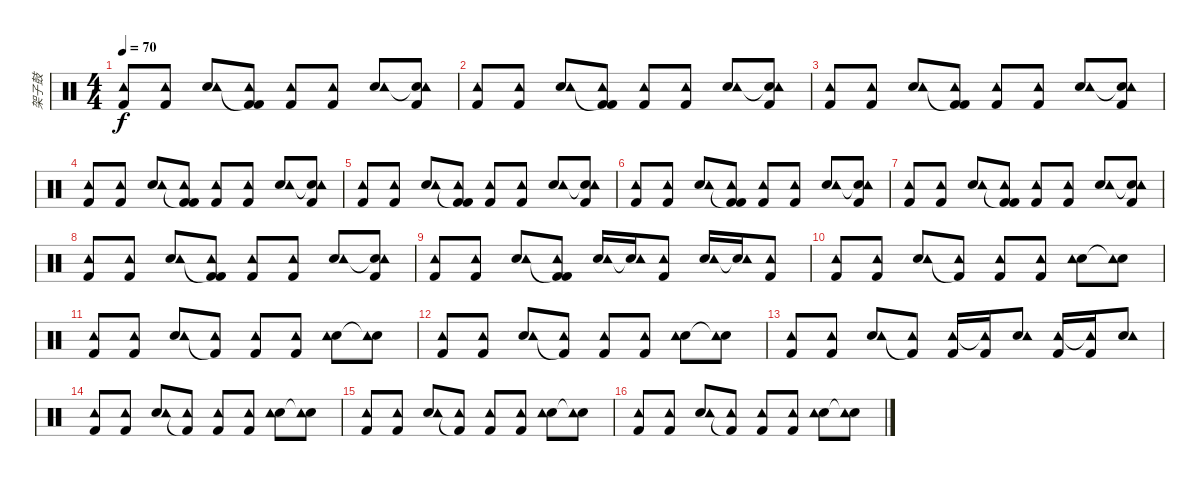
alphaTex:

\track ("架子鼓" "架子鼓") {instrument percussion}
\staff {score}
\articulation defaults
\ts (4 4)
\tempo 70
\clef neutral
\ks c
("Kick (hit) 2" "Tambourine (hit)").8{dy f} ("Kick (hit) 2" "Tambourine (hit)").8 ("Snare (hit) 2" "Tambourine (hit)").8 ("Kick (hit) 2"{t} "Tambourine (hit)" "Kick (hit) 2").8 ("Kick (hit) 2" "Tambourine (hit)").8 ("Kick (hit) 2" "Tambourine (hit)").8 ("Snare (hit) 2" "Tambourine (hit)").8 ("Snare (hit) 2"{t} "Tambourine (hit)" "Kick (hit) 2").8 |
("Kick (hit) 2" "Tambourine (hit)").8 ("Kick (hit) 2" "Tambourine (hit)").8 ("Snare (hit) 2" "Tambourine (hit)").8 ("Kick (hit) 2"{t} "Tambourine (hit)" "Kick (hit) 2").8 ("Kick (hit) 2" "Tambourine (hit)").8 ("Kick (hit) 2" "Tambourine (hit)").8 ("Snare (hit) 2" "Tambourine (hit)").8 ("Snare (hit) 2"{t} "Tambourine (hit)" "Kick (hit) 2").8 |
("Kick (hit) 2" "Tambourine (hit)").8 ("Kick (hit) 2" "Tambourine (hit)").8 ("Snare (hit) 2" "Tambourine (hit)").8 ("Kick (hit) 2"{t} "Tambourine (hit)" "Kick (hit) 2").8 ("Kick (hit) 2" "Tambourine (hit)").8 ("Kick (hit) 2" "Tambourine (hit)").8 ("Snare (hit) 2" "Tambourine (hit)").8 ("Snare (hit) 2"{t} "Tambourine (hit)" "Kick (hit) 2").8 |
("Kick (hit) 2" "Tambourine (hit)").8 ("Kick (hit) 2" "Tambourine (hit)").8 ("Snare (hit) 2" "Tambourine (hit)").8 ("Kick (hit) 2"{t} "Tambourine (hit)" "Kick (hit) 2").8 ("Kick (hit) 2" "Tambourine (hit)").8 ("Kick (hit) 2" "Tambourine (hit)").8 ("Snare (hit) 2" "Tambourine (hit)").8 ("Snare (hit) 2"{t} "Tambourine (hit)" "Kick (hit) 2").8 |
("Kick (hit) 2" "Tambourine (hit)").8 ("Kick (hit) 2" "Tambourine (hit)").8 ("Snare (hit) 2" "Tambourine (hit)").8 ("Kick (hit) 2"{t} "Tambourine (hit)" "Kick (hit) 2").8 ("Kick (hit) 2" "Tambourine (hit)").8 ("Kick (hit) 2" "Tambourine (hit)").8 ("Snare (hit) 2" "Tambourine (hit)").8 ("Snare (hit) 2"{t} "Tambourine (hit)" "Kick (hit) 2").8 |
("Kick (hit) 2" "Tambourine (hit)").8 ("Kick (hit) 2" "Tambourine (hit)").8 ("Snare (hit) 2" "Tambourine (hit)").8 ("Kick (hit) 2"{t} "Tambourine (hit)" "Kick (hit) 2").8 ("Kick (hit) 2" "Tambourine (hit)").8 ("Kick (hit) 2" "Tambourine (hit)").8 ("Snare (hit) 2" "Tambourine (hit)").8 ("Snare (hit) 2"{t} "Tambourine (hit)" "Kick (hit) 2").8 |
("Kick (hit) 2" "Tambourine (hit)").8 ("Kick (hit) 2" "Tambourine (hit)").8 ("Snare (hit) 2" "Tambourine (hit)").8 ("Kick (hit) 2"{t} "Tambourine (hit)" "Kick (hit) 2").8 ("Kick (hit) 2" "Tambourine (hit)").8 ("Kick (hit) 2" "Tambourine (hit)").8 ("Snare (hit) 2" "Tambourine (hit)").8 ("Snare (hit) 2"{t} "Tambourine (hit)" "Kick (hit) 2").8 |
("Kick (hit) 2" "Tambourine (hit)").8 ("Kick (hit) 2" "Tambourine (hit)").8 ("Snare (hit) 2" "Tambourine (hit)").8 ("Kick (hit) 2"{t} "Tambourine (hit)" "Kick (hit) 2").8 ("Kick (hit) 2" "Tambourine (hit)").8 ("Kick (hit) 2" "Tambourine (hit)").8 ("Snare (hit) 2" "Tambourine (hit)").8 ("Snare (hit) 2"{t} "Tambourine (hit)" "Kick (hit) 2").8 |
("Kick (hit) 2" "Tambourine (hit)").8 ("Kick (hit) 2" "Tambourine (hit)").8 ("Snare (hit) 2" "Tambourine (hit)").8 ("Kick (hit) 2"{t} "Tambourine (hit)" "Kick (hit) 2").8 ("Snare (hit) 2" "Tambourine (hit)").16 ("Snare (hit) 2" "Tambourine (hit)"{t}).16 ("Kick (hit) 2" "Tambourine (hit)").8 ("Snare (hit) 2" "Tambourine (hit)").16 ("Snare (hit) 2" "Tambourine (hit)"{t}).16 ("Kick (hit) 2" "Tambourine (hit)").8 |
("Kick (hit) 2" "Tambourine (hit)").8 ("Kick (hit) 2" "Tambourine (hit)").8 ("Snare (hit) 2" "Tambourine (hit)").8 ("Kick (hit) 2"{t} "Tambourine (hit)").8 ("Kick (hit) 2" "Tambourine (hit)").8 ("Kick (hit) 2" "Tambourine (hit)").8 ("Snare (hit) 2" "Tambourine (hit)").8 ("Snare (hit) 2"{t} "Tambourine (hit)").8 |
("Kick (hit) 2" "Tambourine (hit)").8 ("Kick (hit) 2" "Tambourine (hit)").8 ("Snare (hit) 2" "Tambourine (hit)").8 ("Kick (hit) 2"{t} "Tambourine (hit)").8 ("Kick (hit) 2" "Tambourine (hit)").8 ("Kick (hit) 2" "Tambourine (hit)").8 ("Snare (hit) 2" "Tambourine (hit)").8 ("Snare (hit) 2"{t} "Tambourine (hit)").8 |
("Kick (hit) 2" "Tambourine (hit)").8 ("Kick (hit) 2" "Tambourine (hit)").8 ("Snare (hit) 2" "Tambourine (hit)").8 ("Kick (hit) 2"{t} "Tambourine (hit)").8 ("Kick (hit) 2" "Tambourine (hit)").8 ("Kick (hit) 2" "Tambourine (hit)").8 ("Snare (hit) 2" "Tambourine (hit)").8 ("Snare (hit) 2"{t} "Tambourine (hit)").8 |
("Kick (hit) 2" "Tambourine (hit)").8 ("Kick (hit) 2" "Tambourine (hit)").8 ("Snare (hit) 2" "Tambourine (hit)").8 ("Kick (hit) 2"{t} "Tambourine (hit)").8 ("Kick (hit) 2" "Tambourine (hit)").16 ("Kick (hit) 2" "Tambourine (hit)"{t}).16 ("Snare (hit) 2" "Tambourine (hit)").8 ("Kick (hit) 2" "Tambourine (hit)").16 ("Kick (hit) 2" "Tambourine (hit)"{t}).16 ("Snare (hit) 2" "Tambourine (hit)").8 |
("Kick (hit) 2" "Tambourine (hit)").8 ("Kick (hit) 2" "Tambourine (hit)").8 ("Snare (hit) 2" "Tambourine (hit)").8 ("Kick (hit) 2"{t} "Tambourine (hit)").8 ("Kick (hit) 2" "Tambourine (hit)").8 ("Kick (hit) 2" "Tambourine (hit)").8 ("Snare (hit) 2" "Tambourine (hit)").8 ("Snare (hit) 2"{t} "Tambourine (hit)").8 |
("Kick (hit) 2" "Tambourine (hit)").8 ("Kick (hit) 2" "Tambourine (hit)").8 ("Snare (hit) 2" "Tambourine (hit)").8 ("Kick (hit) 2"{t} "Tambourine (hit)").8 ("Kick (hit) 2" "Tambourine (hit)").8 ("Kick (hit) 2" "Tambourine (hit)").8 ("Snare (hit) 2" "Tambourine (hit)").8 ("Snare (hit) 2"{t} "Tambourine (hit)").8 |
("Kick (hit) 2" "Tambourine (hit)").8 ("Kick (hit) 2" "Tambourine (hit)").8 ("Snare (hit) 2" "Tambourine (hit)").8 ("Kick (hit) 2"{t} "Tambourine (hit)").8 ("Kick (hit) 2" "Tambourine (hit)").8 ("Kick (hit) 2" "Tambourine (hit)").8 ("Snare (hit) 2" "Tambourine (hit)").8 ("Snare (hit) 2"{t} "Tambourine (hit)").8
